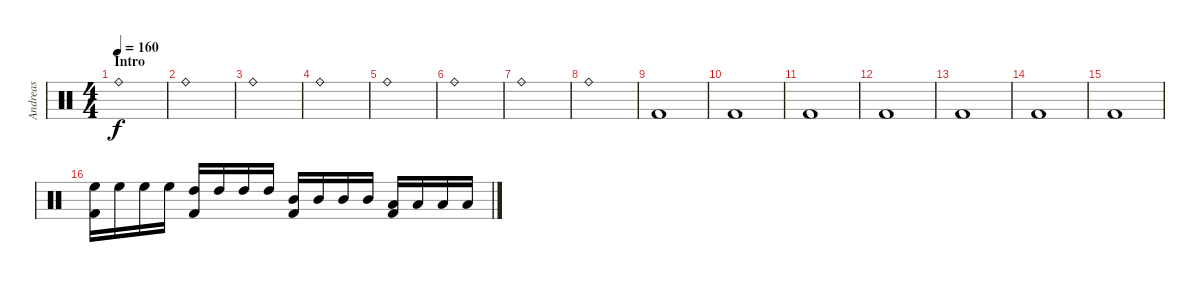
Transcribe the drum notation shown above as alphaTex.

\track ("Andreas" "Andreas") {instrument percussion}
\staff {score}
\articulation defaults
\ts (4 4)
\section ("" "Intro")
\tempo 160
\tempo 80
\tempo 160
\clef neutral
\ks c "Ride (bell)".1{dy f}
|
"Ride (bell)".1 |
"Ride (bell)".1 |
"Ride (bell)".1 |
"Ride (bell)".1 |
"Ride (bell)".1 |
"Ride (bell)".1 |
"Ride (bell)".1 |
"Kick (hit) 2".1 |
"Kick (hit) 2".1 |
"Kick (hit) 2".1 |
"Kick (hit) 2".1 |
"Kick (hit) 2".1 |
"Kick (hit) 2".1 |
"Kick (hit) 2".1 |
("High Floor Tom (hit)" "Kick (hit) 2").16 "High Floor Tom (hit)".16 "High Floor Tom (hit)".16 "High Floor Tom (hit)".16 ("High Tom (hit)" "Kick (hit) 2").16 "High Tom (hit)".16 "High Tom (hit)".16 "High Tom (hit)".16 ("Mid Tom (hit)" "Kick (hit) 2").16 "Mid Tom (hit)".16 "Mid Tom (hit)".16 "Mid Tom (hit)".16 ("Low Tom (hit)" "Kick (hit) 2").16 "Low Tom (hit)".16 "Low Tom (hit)".16 "Low Tom (hit)".16
